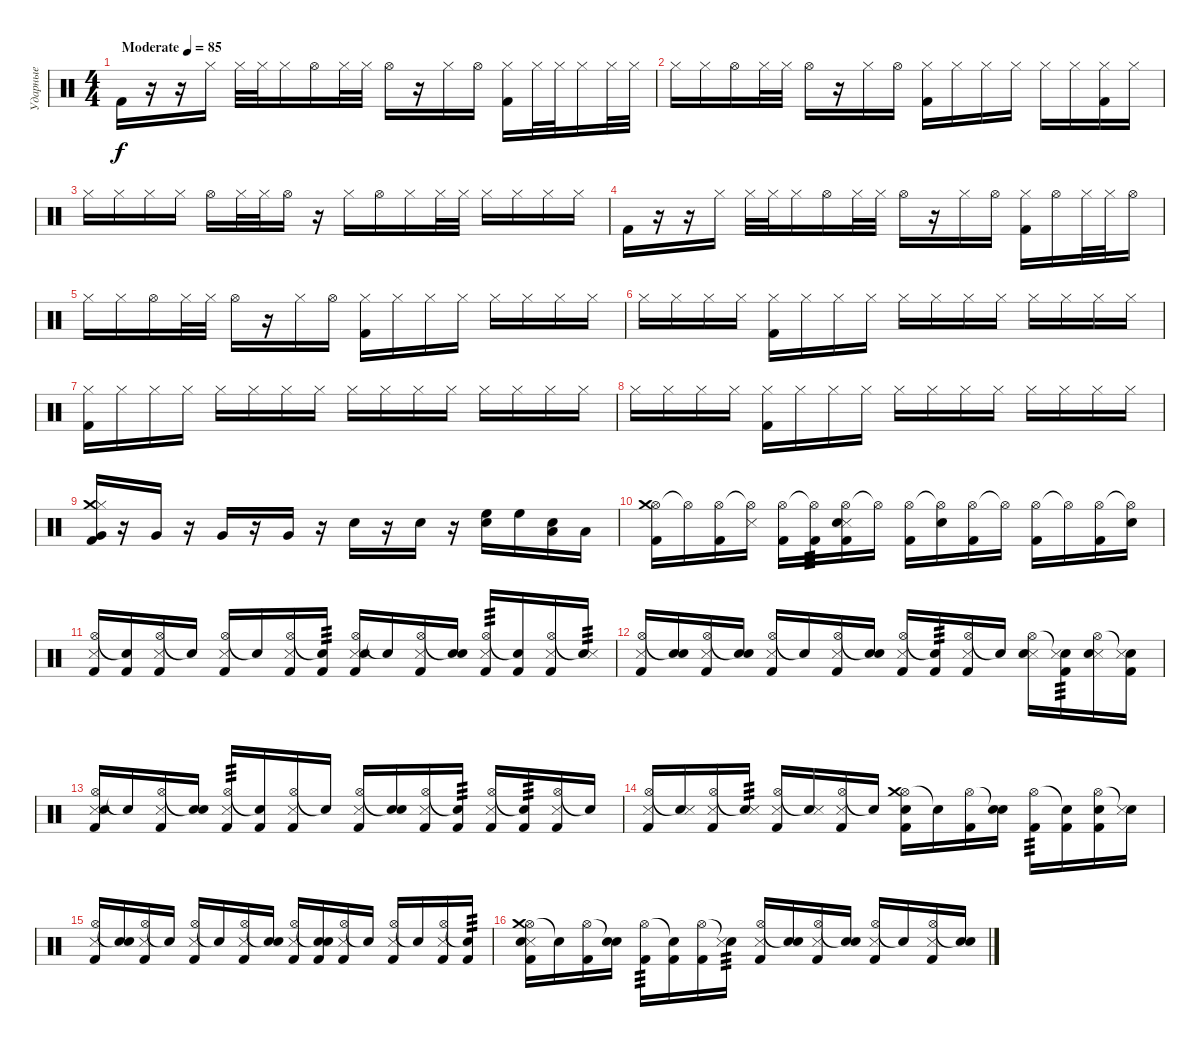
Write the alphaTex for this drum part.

\track ("Ударные" "Ударные") {instrument percussion}
\staff {score}
\articulation defaults
\ts (4 4)
\tempo (85 "Moderate")
\clef neutral
\ks c "Kick (hit) 2".16{dy f}
r.16 r.16 "Hi-Hat (closed)".16 "Hi-Hat (closed)".32 "Hi-Hat (closed)".32 "Hi-Hat (closed)".16 "Hi-Hat (open)".16 "Hi-Hat (closed)".32 "Hi-Hat (closed)".32 "Hi-Hat (open)".16 r.16 "Hi-Hat (closed)".16 "Hi-Hat (open)".16 ("Hi-Hat (closed)" "Kick (hit) 2").16 "Hi-Hat (closed)".32 "Hi-Hat (closed)".32 "Hi-Hat (closed)".16 "Hi-Hat (closed)".32 "Hi-Hat (closed)".32 |
"Hi-Hat (closed)".16 "Hi-Hat (closed)".16 "Hi-Hat (open)".16 "Hi-Hat (closed)".32 "Hi-Hat (closed)".32 "Hi-Hat (open)".16 r.16 "Hi-Hat (closed)".16 "Hi-Hat (open)".16 ("Hi-Hat (closed)" "Kick (hit) 2").16 "Hi-Hat (closed)".16 "Hi-Hat (closed)".16 "Hi-Hat (closed)".16 "Hi-Hat (closed)".16 "Hi-Hat (closed)".16 ("Hi-Hat (closed)" "Kick (hit) 2").16 "Hi-Hat (closed)".16 |
"Hi-Hat (closed)".16 "Hi-Hat (closed)".16 "Hi-Hat (closed)".16 "Hi-Hat (closed)".16 "Hi-Hat (open)".16 "Hi-Hat (closed)".32 "Hi-Hat (closed)".32 "Hi-Hat (open)".16 r.16 "Hi-Hat (closed)".16 "Hi-Hat (open)".16 "Hi-Hat (closed)".16 "Hi-Hat (closed)".32 "Hi-Hat (closed)".32 "Hi-Hat (closed)".16 "Hi-Hat (closed)".16 "Hi-Hat (closed)".16 "Hi-Hat (closed)".16 |
"Kick (hit) 2".16 r.16 r.16 "Hi-Hat (closed)".16 "Hi-Hat (closed)".32 "Hi-Hat (closed)".32 "Hi-Hat (closed)".16 "Hi-Hat (open)".16 "Hi-Hat (closed)".32 "Hi-Hat (closed)".32 "Hi-Hat (open)".16 r.16 "Hi-Hat (closed)".16 "Hi-Hat (open)".16 ("Hi-Hat (closed)" "Kick (hit) 2").16 "Hi-Hat (open)".16 "Hi-Hat (closed)".32 "Hi-Hat (closed)".32 "Hi-Hat (open)".16 |
"Hi-Hat (closed)".16 "Hi-Hat (closed)".16 "Hi-Hat (open)".16 "Hi-Hat (closed)".32 "Hi-Hat (closed)".32 "Hi-Hat (open)".16 r.16 "Hi-Hat (closed)".16 "Hi-Hat (open)".16 ("Hi-Hat (closed)" "Kick (hit) 2").16 "Hi-Hat (closed)".16 "Hi-Hat (closed)".16 "Hi-Hat (closed)".16 "Hi-Hat (closed)".16 "Hi-Hat (closed)".16 "Hi-Hat (closed)".16 "Hi-Hat (closed)".16 |
"Hi-Hat (closed)".16 "Hi-Hat (closed)".16 "Hi-Hat (closed)".16 "Hi-Hat (closed)".16 ("Hi-Hat (closed)" "Kick (hit) 2").16 "Hi-Hat (closed)".16 "Hi-Hat (closed)".16 "Hi-Hat (closed)".16 "Hi-Hat (closed)".16 "Hi-Hat (closed)".16 "Hi-Hat (closed)".16 "Hi-Hat (closed)".16 "Hi-Hat (closed)".16 "Hi-Hat (closed)".16 "Hi-Hat (closed)".16 "Hi-Hat (closed)".16 |
("Hi-Hat (closed)" "Kick (hit) 2").16 "Hi-Hat (closed)".16 "Hi-Hat (closed)".16 "Hi-Hat (closed)".16 "Hi-Hat (closed)".16 "Hi-Hat (closed)".16 "Hi-Hat (closed)".16 "Hi-Hat (closed)".16 "Hi-Hat (closed)".16 "Hi-Hat (closed)".16 "Hi-Hat (closed)".16 "Hi-Hat (closed)".16 "Hi-Hat (closed)".16 "Hi-Hat (closed)".16 "Hi-Hat (closed)".16 "Hi-Hat (closed)".16 |
"Hi-Hat (closed)".16 "Hi-Hat (closed)".16 "Hi-Hat (closed)".16 "Hi-Hat (closed)".16 ("Hi-Hat (closed)" "Kick (hit) 2").16 "Hi-Hat (closed)".16 "Hi-Hat (closed)".16 "Hi-Hat (closed)".16 "Hi-Hat (closed)".16 "Hi-Hat (closed)".16 "Hi-Hat (closed)".16 "Hi-Hat (closed)".16 "Hi-Hat (closed)".16 "Hi-Hat (closed)".16 "Hi-Hat (closed)".16 "Hi-Hat (closed)".16 |
("Crash medium (hit)" "Hi-Hat (closed)" "Very Low Tom (hit)" "Kick (hit) 2").16 r.16 "Very Low Tom (hit)".16 r.16 "Very Low Tom (hit)".16 r.16 "Very Low Tom (hit)".16 r.16 "Electric Snare (hit)".16 r.16 "Electric Snare (hit)".16 r.16 ("High Floor Tom (hit)" "Electric Snare (hit)").16 "High Floor Tom (hit)".16 ("Low Tom (hit)" "Electric Snare (hit)").16 "Low Tom (hit)".16 |
("Hi-Hat (open)" "Crash medium (hit)" "Kick (hit) 2").16 "Hi-Hat (open)"{t}.16 ("Hi-Hat (open)" "Kick (hit) 2").16 ("Hi-Hat (open)"{t} "Snare (side stick) 3").16 ("Hi-Hat (open)" "Kick (hit) 2").16 ("Hi-Hat (open)"{t} "Kick (hit) 2").16{tp 3} ("Hi-Hat (open)" "Snare (side stick) 3" "Electric Snare (hit)" "Kick (hit) 2").16 "Hi-Hat (open)"{t}.16 ("Hi-Hat (open)" "Kick (hit) 2").16 ("Hi-Hat (open)"{t} "Electric Snare (hit)").16 ("Hi-Hat (open)" "Kick (hit) 2").16 "Hi-Hat (open)"{t}.16 ("Hi-Hat (open)" "Kick (hit) 2").16 "Hi-Hat (open)"{t}.16 ("Hi-Hat (open)" "Kick (hit) 2").16 ("Hi-Hat (open)"{t} "Electric Snare (hit)").16 |
("Hi-Hat (open)" "Snare (side stick) 3" "Kick (hit) 2").16 ("Snare (hit)"{t} "Kick (hit) 2").16 ("Hi-Hat (open)" "Snare (side stick) 3" "Kick (hit) 2").16 "Snare (hit)"{t}.16 ("Hi-Hat (open)" "Snare (side stick) 3" "Kick (hit) 2").16 "Snare (hit)"{t}.16 ("Hi-Hat (open)" "Snare (side stick) 3" "Kick (hit) 2").16 ("Snare (hit)"{t} "Kick (hit) 2").16{tp 3} ("Hi-Hat (open)" "Snare (side stick) 3" "Electric Snare (hit)" "Kick (hit) 2").16 "Snare (hit)"{t}.16 ("Hi-Hat (open)" "Snare (side stick) 3" "Kick (hit) 2").16 ("Snare (hit)"{t} "Electric Snare (hit)").16 ("Hi-Hat (open)" "Snare (side stick) 3" "Kick (hit) 2").16{tp 3} ("Snare (hit)"{t} "Kick (hit) 2").16 ("Hi-Hat (open)" "Snare (side stick) 3" "Kick (hit) 2").16 ("Snare (hit)"{t} "Snare (side stick) 3").16{tp 3} |
("Hi-Hat (open)" "Snare (side stick) 3" "Kick (hit) 2").16 ("Snare (hit)"{t} "Electric Snare (hit)").16 ("Hi-Hat (open)" "Snare (side stick) 3" "Kick (hit) 2").16 ("Snare (hit)"{t} "Electric Snare (hit)").16 ("Hi-Hat (open)" "Snare (side stick) 3" "Kick (hit) 2").16 "Snare (hit)"{t}.16 ("Hi-Hat (open)" "Snare (side stick) 3" "Kick (hit) 2").16 ("Snare (hit)"{t} "Electric Snare (hit)").16 ("Hi-Hat (open)" "Snare (side stick) 3" "Kick (hit) 2").16 ("Snare (hit)"{t} "Kick (hit) 2").16{tp 3} ("Hi-Hat (open)" "Snare (side stick) 3" "Kick (hit) 2").16 "Snare (hit)"{t}.16 ("Hi-Hat (open)" "Snare (side stick) 3" "Electric Snare (hit)").16 ("Snare (hit)"{t} "Snare (side stick) 3" "Kick (hit) 2").16{tp 3} ("Hi-Hat (open)" "Snare (side stick) 3" "Electric Snare (hit)").16 ("Snare (hit)"{t} "Snare (side stick) 3" "Kick (hit) 2").16 |
("Hi-Hat (open)" "Snare (side stick) 3" "Electric Snare (hit)" "Kick (hit) 2").16 "Snare (hit)"{t}.16 ("Hi-Hat (open)" "Snare (side stick) 3" "Kick (hit) 2").16 ("Snare (hit)"{t} "Electric Snare (hit)").16 ("Hi-Hat (open)" "Snare (side stick) 3" "Kick (hit) 2").16{tp 3} ("Snare (hit)"{t} "Kick (hit) 2").16 ("Hi-Hat (open)" "Snare (side stick) 3" "Kick (hit) 2").16 "Snare (hit)"{t}.16 ("Hi-Hat (open)" "Snare (side stick) 3" "Kick (hit) 2").16 ("Snare (hit)"{t} "Electric Snare (hit)").16 ("Hi-Hat (open)" "Snare (side stick) 3" "Kick (hit) 2").16 ("Snare (hit)"{t} "Kick (hit) 2").16{tp 3} ("Hi-Hat (open)" "Snare (side stick) 3" "Kick (hit) 2").16 ("Snare (hit)"{t} "Kick (hit) 2").16{tp 3} ("Hi-Hat (open)" "Snare (side stick) 3" "Kick (hit) 2").16 "Snare (hit)"{t}.16 |
("Hi-Hat (open)" "Snare (side stick) 3" "Kick (hit) 2").16 ("Snare (hit)"{t} "Snare (side stick) 3").16 ("Hi-Hat (open)" "Snare (side stick) 3" "Kick (hit) 2").16 ("Snare (hit)"{t} "Snare (side stick) 3").16{tp 3} ("Hi-Hat (open)" "Snare (side stick) 3" "Kick (hit) 2").16 ("Snare (hit)"{t} "Snare (side stick) 3").16 ("Hi-Hat (open)" "Snare (side stick) 3" "Kick (hit) 2").16 "Snare (hit)"{t}.16 ("Hi-Hat (open)" "Crash medium (hit)" "Electric Snare (hit)" "Kick (hit) 2").16 "Snare (hit)"{t}.16 ("Hi-Hat (open)" "Kick (hit) 2").16 ("Snare (hit)"{t} "Electric Snare (hit)").16 ("Hi-Hat (open)" "Kick (hit) 2").16{tp 3} ("Snare (hit)"{t} "Kick (hit) 2").16 ("Hi-Hat (open)" "Electric Snare (hit)" "Kick (hit) 2").16 ("Snare (hit)"{t} "Snare (side stick) 3").16 |
("Hi-Hat (open)" "Snare (side stick) 3" "Kick (hit) 2").16 ("Snare (hit)"{t} "Electric Snare (hit)").16 ("Hi-Hat (open)" "Snare (side stick) 3" "Kick (hit) 2").16 "Snare (hit)"{t}.16 ("Hi-Hat (open)" "Snare (side stick) 3" "Kick (hit) 2").16 "Snare (hit)"{t}.16 ("Hi-Hat (open)" "Snare (side stick) 3" "Kick (hit) 2").16 ("Snare (hit)"{t} "Electric Snare (hit)").16 ("Hi-Hat (open)" "Snare (side stick) 3" "Kick (hit) 2").16 ("Snare (hit)"{t} "Electric Snare (hit)" "Kick (hit) 2").16 ("Hi-Hat (open)" "Snare (side stick) 3" "Kick (hit) 2").16 "Snare (hit)"{t}.16 ("Hi-Hat (open)" "Snare (side stick) 3" "Kick (hit) 2").16 "Snare (hit)"{t}.16 ("Hi-Hat (open)" "Snare (side stick) 3" "Kick (hit) 2").16 ("Snare (hit)"{t} "Kick (hit) 2").16{tp 3} |
("Hi-Hat (open)" "Crash medium (hit)" "Snare (side stick) 3" "Electric Snare (hit)" "Kick (hit) 2").16 "Snare (hit)"{t}.16 ("Hi-Hat (open)" "Kick (hit) 2").16 ("Snare (hit)"{t} "Electric Snare (hit)").16 ("Hi-Hat (open)" "Kick (hit) 2").16{tp 3} ("Snare (hit)"{t} "Kick (hit) 2").16 ("Hi-Hat (open)" "Kick (hit) 2").16 ("Snare (hit)"{t} "Snare (side stick) 3").16{tp 3} ("Hi-Hat (open)" "Snare (side stick) 3" "Kick (hit) 2").16 ("Snare (hit)"{t} "Electric Snare (hit)").16 ("Hi-Hat (open)" "Snare (side stick) 3" "Kick (hit) 2").16 ("Snare (hit)"{t} "Electric Snare (hit)").16 ("Hi-Hat (open)" "Snare (side stick) 3" "Kick (hit) 2").16 "Snare (hit)"{t}.16 ("Hi-Hat (open)" "Snare (side stick) 3" "Kick (hit) 2").16 ("Snare (hit)"{t} "Electric Snare (hit)").16
